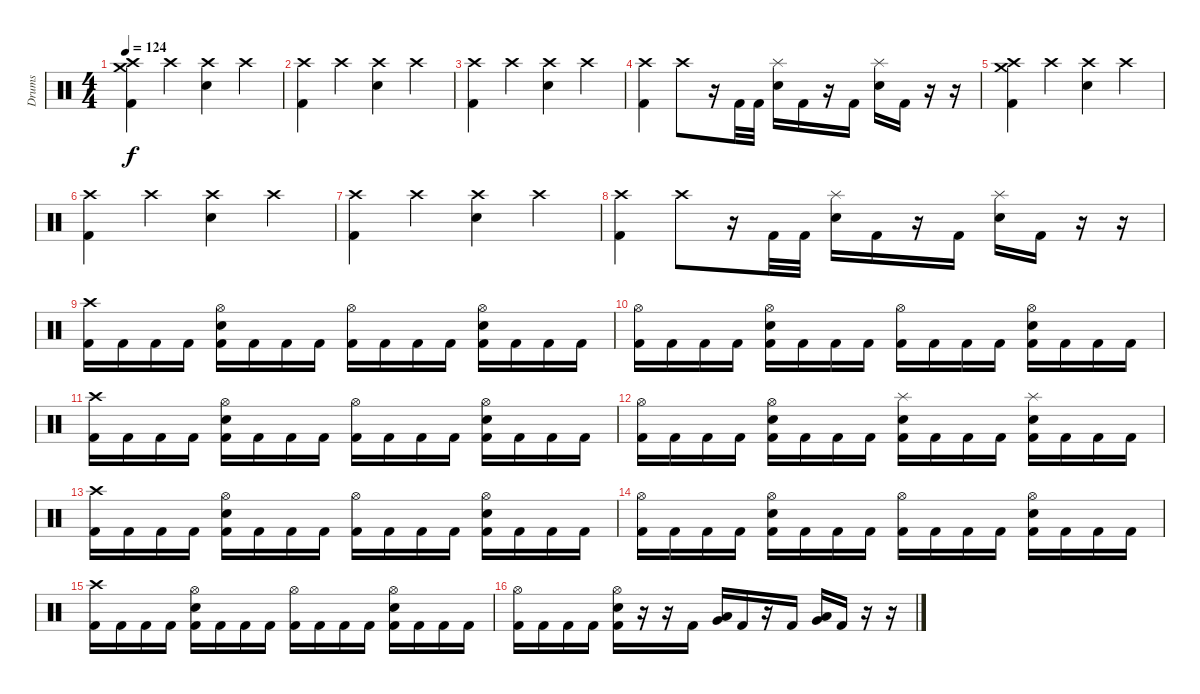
\track ("Drums" "Drums") {instrument percussion}
\staff {score}
\articulation defaults
\ts (4 4)
\tempo 124
\clef neutral
\ks c
("Crash high (hit)" "Crash medium (hit)" "Kick (hit) 2").4{dy f} "Crash high (hit)".4 ("Crash high (hit)" "Electric Snare (hit)").4 "Crash high (hit)".4 |
("Crash high (hit)" "Kick (hit) 2").4 "Crash high (hit)".4 ("Crash high (hit)" "Electric Snare (hit)").4 "Crash high (hit)".4 |
("Crash high (hit)" "Kick (hit) 2").4 "Crash high (hit)".4 ("Crash high (hit)" "Electric Snare (hit)").4 "Crash high (hit)".4 |
("Crash high (hit)" "Kick (hit) 2").4 "Crash high (hit)".8 r.16 "Kick (hit) 2".32 "Kick (hit) 2".32 ("Splash (hit)" "Electric Snare (hit)").16 "Kick (hit) 2".16 r.16 "Kick (hit) 2".16 ("Splash (hit)" "Electric Snare (hit)").16 "Kick (hit) 2".16 r.16 r.16 |
("Crash high (hit)" "Crash medium (hit)" "Kick (hit) 2").4 "Crash high (hit)".4 ("Crash high (hit)" "Electric Snare (hit)").4 "Crash high (hit)".4 |
("Crash high (hit)" "Kick (hit) 2").4 "Crash high (hit)".4 ("Crash high (hit)" "Electric Snare (hit)").4 "Crash high (hit)".4 |
("Crash high (hit)" "Kick (hit) 2").4 "Crash high (hit)".4 ("Crash high (hit)" "Electric Snare (hit)").4 "Crash high (hit)".4 |
("Crash high (hit)" "Kick (hit) 2").4 "Crash high (hit)".8 r.16 "Kick (hit) 2".32 "Kick (hit) 2".32 ("Splash (hit)" "Electric Snare (hit)").16 "Kick (hit) 2".16 r.16 "Kick (hit) 2".16 ("Splash (hit)" "Electric Snare (hit)").16 "Kick (hit) 2".16 r.16 r.16 |
("Crash high (hit)" "Kick (hit) 2").16 "Kick (hit) 2".16 "Kick (hit) 2".16 "Kick (hit) 2".16 ("Hi-Hat (open)" "Electric Snare (hit)" "Kick (hit) 2").16 "Kick (hit) 2".16 "Kick (hit) 2".16 "Kick (hit) 2".16 ("Hi-Hat (open)" "Kick (hit) 2").16 "Kick (hit) 2".16 "Kick (hit) 2".16 "Kick (hit) 2".16 ("Hi-Hat (open)" "Electric Snare (hit)" "Kick (hit) 2").16 "Kick (hit) 2".16 "Kick (hit) 2".16 "Kick (hit) 2".16 |
("Hi-Hat (open)" "Kick (hit) 2").16 "Kick (hit) 2".16 "Kick (hit) 2".16 "Kick (hit) 2".16 ("Hi-Hat (open)" "Electric Snare (hit)" "Kick (hit) 2").16 "Kick (hit) 2".16 "Kick (hit) 2".16 "Kick (hit) 2".16 ("Hi-Hat (open)" "Kick (hit) 2").16 "Kick (hit) 2".16 "Kick (hit) 2".16 "Kick (hit) 2".16 ("Hi-Hat (open)" "Electric Snare (hit)" "Kick (hit) 2").16 "Kick (hit) 2".16 "Kick (hit) 2".16 "Kick (hit) 2".16 |
("Crash high (hit)" "Kick (hit) 2").16 "Kick (hit) 2".16 "Kick (hit) 2".16 "Kick (hit) 2".16 ("Hi-Hat (open)" "Electric Snare (hit)" "Kick (hit) 2").16 "Kick (hit) 2".16 "Kick (hit) 2".16 "Kick (hit) 2".16 ("Hi-Hat (open)" "Kick (hit) 2").16 "Kick (hit) 2".16 "Kick (hit) 2".16 "Kick (hit) 2".16 ("Hi-Hat (open)" "Electric Snare (hit)" "Kick (hit) 2").16 "Kick (hit) 2".16 "Kick (hit) 2".16 "Kick (hit) 2".16 |
("Hi-Hat (open)" "Kick (hit) 2").16 "Kick (hit) 2".16 "Kick (hit) 2".16 "Kick (hit) 2".16 ("Hi-Hat (open)" "Electric Snare (hit)" "Kick (hit) 2").16 "Kick (hit) 2".16 "Kick (hit) 2".16 "Kick (hit) 2".16 ("Splash (hit)" "Electric Snare (hit)" "Kick (hit) 2").16 "Kick (hit) 2".16 "Kick (hit) 2".16 "Kick (hit) 2".16 ("Splash (hit)" "Electric Snare (hit)" "Kick (hit) 2").16 "Kick (hit) 2".16 "Kick (hit) 2".16 "Kick (hit) 2".16 |
("Crash high (hit)" "Kick (hit) 2").16 "Kick (hit) 2".16 "Kick (hit) 2".16 "Kick (hit) 2".16 ("Hi-Hat (open)" "Electric Snare (hit)" "Kick (hit) 2").16 "Kick (hit) 2".16 "Kick (hit) 2".16 "Kick (hit) 2".16 ("Hi-Hat (open)" "Kick (hit) 2").16 "Kick (hit) 2".16 "Kick (hit) 2".16 "Kick (hit) 2".16 ("Hi-Hat (open)" "Electric Snare (hit)" "Kick (hit) 2").16 "Kick (hit) 2".16 "Kick (hit) 2".16 "Kick (hit) 2".16 |
("Hi-Hat (open)" "Kick (hit) 2").16 "Kick (hit) 2".16 "Kick (hit) 2".16 "Kick (hit) 2".16 ("Hi-Hat (open)" "Electric Snare (hit)" "Kick (hit) 2").16 "Kick (hit) 2".16 "Kick (hit) 2".16 "Kick (hit) 2".16 ("Hi-Hat (open)" "Kick (hit) 2").16 "Kick (hit) 2".16 "Kick (hit) 2".16 "Kick (hit) 2".16 ("Hi-Hat (open)" "Electric Snare (hit)" "Kick (hit) 2").16 "Kick (hit) 2".16 "Kick (hit) 2".16 "Kick (hit) 2".16 |
("Crash high (hit)" "Kick (hit) 2").16 "Kick (hit) 2".16 "Kick (hit) 2".16 "Kick (hit) 2".16 ("Hi-Hat (open)" "Electric Snare (hit)" "Kick (hit) 2").16 "Kick (hit) 2".16 "Kick (hit) 2".16 "Kick (hit) 2".16 ("Hi-Hat (open)" "Kick (hit) 2").16 "Kick (hit) 2".16 "Kick (hit) 2".16 "Kick (hit) 2".16 ("Hi-Hat (open)" "Electric Snare (hit)" "Kick (hit) 2").16 "Kick (hit) 2".16 "Kick (hit) 2".16 "Kick (hit) 2".16 |
("Hi-Hat (open)" "Kick (hit) 2").16 "Kick (hit) 2".16 "Kick (hit) 2".16 "Kick (hit) 2".16 ("Hi-Hat (open)" "Electric Snare (hit)" "Kick (hit) 2").16 r.16 r.16 "Kick (hit) 2".16 ("Low Floor Tom (hit)" "Very Low Tom (hit)").16 "Kick (hit) 2".16 r.16 "Kick (hit) 2".16 ("Low Floor Tom (hit)" "Very Low Tom (hit)").16 "Kick (hit) 2".16 r.16 r.16
